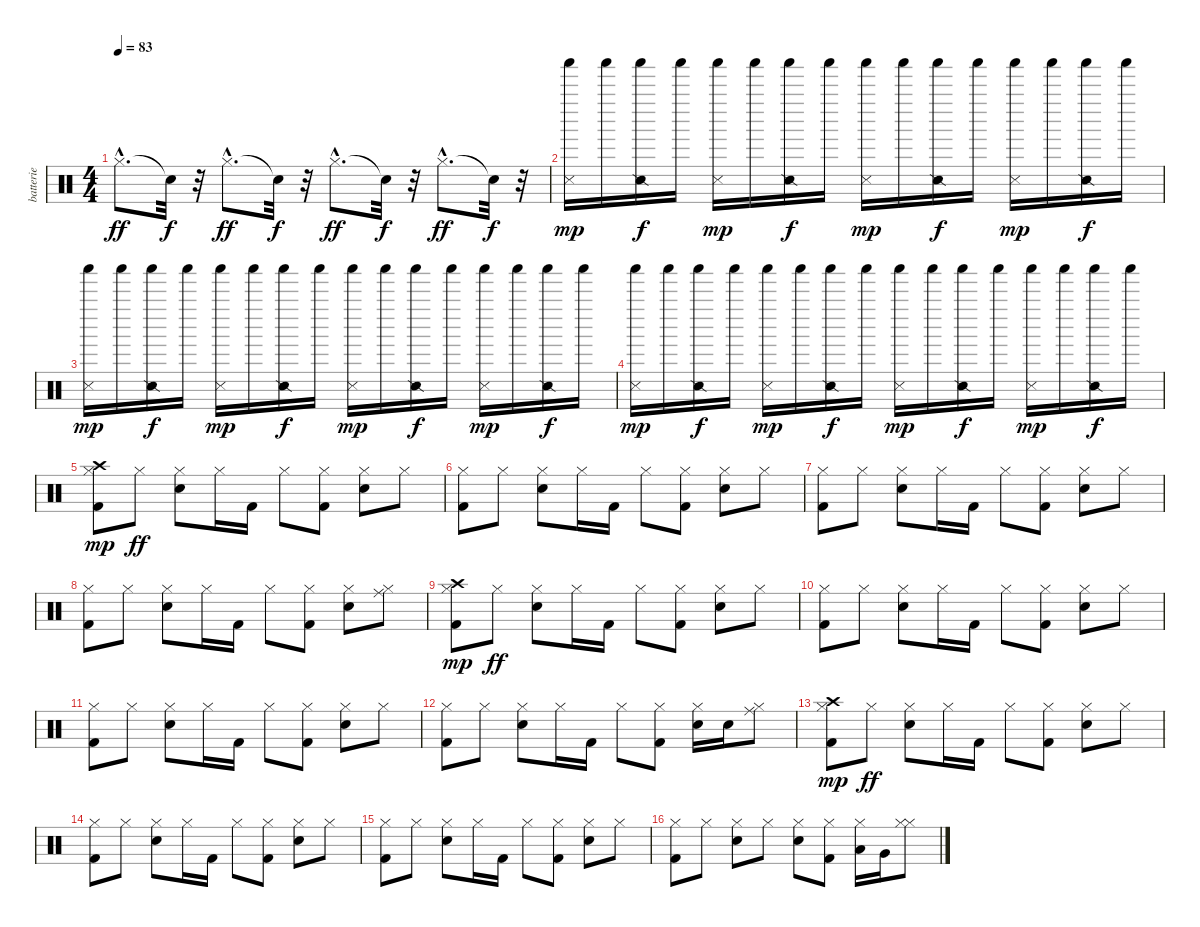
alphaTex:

\track ("batterie" "batterie") {instrument percussion}
\staff {score}
\articulation defaults
\ts (4 4)
\tempo 83
\clef neutral
\ks c "Hi-Hat (closed)"{hac}.8{d dy ff} "Snare (hit)"{t}.32{dy f}
r.32 "Hi-Hat (closed)"{hac}.8{d dy ff} "Snare (hit)"{t}.32{dy f} r.32 "Hi-Hat (closed)"{hac}.8{d dy ff} "Snare (hit)"{t}.32{dy f} r.32 "Hi-Hat (closed)"{hac}.8{d dy ff} "Snare (hit)"{t}.32{dy f} r.32 |
("Snare (side stick) 3" "Shaker (hit)").16{dy mp} "Shaker (hit)".16 ("Snare (side stick) 2" "Shaker (hit)").16{dy f} "Shaker (hit)".16 ("Snare (side stick) 3" "Shaker (hit)").16{dy mp} "Shaker (hit)".16 ("Snare (side stick) 2" "Shaker (hit)").16{dy f} "Shaker (hit)".16 ("Snare (side stick) 3" "Shaker (hit)").16{dy mp} "Shaker (hit)".16 ("Snare (side stick) 2" "Shaker (hit)").16{dy f} "Shaker (hit)".16 ("Snare (side stick) 3" "Shaker (hit)").16{dy mp} "Shaker (hit)".16 ("Snare (side stick) 2" "Shaker (hit)").16{dy f} "Shaker (hit)".16 |
("Snare (side stick) 3" "Shaker (hit)").16{dy mp} "Shaker (hit)".16 ("Snare (side stick) 2" "Shaker (hit)").16{dy f} "Shaker (hit)".16 ("Snare (side stick) 3" "Shaker (hit)").16{dy mp} "Shaker (hit)".16 ("Snare (side stick) 2" "Shaker (hit)").16{dy f} "Shaker (hit)".16 ("Snare (side stick) 3" "Shaker (hit)").16{dy mp} "Shaker (hit)".16 ("Snare (side stick) 2" "Shaker (hit)").16{dy f} "Shaker (hit)".16 ("Snare (side stick) 3" "Shaker (hit)").16{dy mp} "Shaker (hit)".16 ("Snare (side stick) 2" "Shaker (hit)").16{dy f} "Shaker (hit)".16 |
("Snare (side stick) 3" "Shaker (hit)").16{dy mp} "Shaker (hit)".16 ("Snare (side stick) 2" "Shaker (hit)").16{dy f} "Shaker (hit)".16 ("Snare (side stick) 3" "Shaker (hit)").16{dy mp} "Shaker (hit)".16 ("Snare (side stick) 2" "Shaker (hit)").16{dy f} "Shaker (hit)".16 ("Snare (side stick) 3" "Shaker (hit)").16{dy mp} "Shaker (hit)".16 ("Snare (side stick) 2" "Shaker (hit)").16{dy f} "Shaker (hit)".16 ("Snare (side stick) 3" "Shaker (hit)").16{dy mp} "Shaker (hit)".16 ("Snare (side stick) 2" "Shaker (hit)").16{dy f} "Shaker (hit)".16 |
("Kick (hit) 2" "Hi-Hat (closed)" "Crash high (hit)").8{dy mp} "Hi-Hat (closed)".8{dy ff} ("Snare (hit) 2" "Hi-Hat (closed)").8 "Hi-Hat (closed)".16 "Kick (hit) 2".16 "Hi-Hat (closed)".8 ("Kick (hit) 2" "Hi-Hat (closed)").8 ("Snare (hit) 2" "Hi-Hat (closed)").8 "Hi-Hat (closed)".8 |
("Kick (hit) 2" "Hi-Hat (closed)").8 "Hi-Hat (closed)".8 ("Snare (hit) 2" "Hi-Hat (closed)").8 "Hi-Hat (closed)".16 "Kick (hit) 2".16 "Hi-Hat (closed)".8 ("Kick (hit) 2" "Hi-Hat (closed)").8 ("Snare (hit) 2" "Hi-Hat (closed)").8 "Hi-Hat (closed)".8 |
("Kick (hit) 2" "Hi-Hat (closed)").8 "Hi-Hat (closed)".8 ("Snare (hit) 2" "Hi-Hat (closed)").8 "Hi-Hat (closed)".16 "Kick (hit) 2".16 "Hi-Hat (closed)".8 ("Kick (hit) 2" "Hi-Hat (closed)").8 ("Snare (hit) 2" "Hi-Hat (closed)").8 "Hi-Hat (closed)".8 |
("Kick (hit) 2" "Hi-Hat (closed)").8 "Hi-Hat (closed)".8 ("Snare (hit) 2" "Hi-Hat (closed)").8 "Hi-Hat (closed)".16 "Kick (hit) 2".16 "Hi-Hat (closed)".8 ("Kick (hit) 2" "Hi-Hat (closed)").8 ("Snare (hit) 2" "Hi-Hat (closed)").8 ("Hi-Hat (closed)" "Ride (middle)").8 |
("Kick (hit) 2" "Hi-Hat (closed)" "Crash high (hit)").8{dy mp} "Hi-Hat (closed)".8{dy ff} ("Snare (hit) 2" "Hi-Hat (closed)").8 "Hi-Hat (closed)".16 "Kick (hit) 2".16 "Hi-Hat (closed)".8 ("Kick (hit) 2" "Hi-Hat (closed)").8 ("Snare (hit) 2" "Hi-Hat (closed)").8 "Hi-Hat (closed)".8 |
("Kick (hit) 2" "Hi-Hat (closed)").8 "Hi-Hat (closed)".8 ("Snare (hit) 2" "Hi-Hat (closed)").8 "Hi-Hat (closed)".16 "Kick (hit) 2".16 "Hi-Hat (closed)".8 ("Kick (hit) 2" "Hi-Hat (closed)").8 ("Snare (hit) 2" "Hi-Hat (closed)").8 "Hi-Hat (closed)".8 |
("Kick (hit) 2" "Hi-Hat (closed)").8 "Hi-Hat (closed)".8 ("Snare (hit) 2" "Hi-Hat (closed)").8 "Hi-Hat (closed)".16 "Kick (hit) 2".16 "Hi-Hat (closed)".8 ("Kick (hit) 2" "Hi-Hat (closed)").8 ("Snare (hit) 2" "Hi-Hat (closed)").8 "Hi-Hat (closed)".8 |
("Kick (hit) 2" "Hi-Hat (closed)").8 "Hi-Hat (closed)".8 ("Snare (hit) 2" "Hi-Hat (closed)").8 "Hi-Hat (closed)".16 "Kick (hit) 2".16 "Hi-Hat (closed)".8 ("Kick (hit) 2" "Hi-Hat (closed)").8 ("Snare (hit) 2" "Hi-Hat (closed)").16 "Snare (hit) 2".16 ("Hi-Hat (closed)" "Ride (middle)").8 |
("Kick (hit) 2" "Hi-Hat (closed)" "Crash high (hit)").8{dy mp} "Hi-Hat (closed)".8{dy ff} ("Snare (hit) 2" "Hi-Hat (closed)").8 "Hi-Hat (closed)".16 "Kick (hit) 2".16 "Hi-Hat (closed)".8 ("Kick (hit) 2" "Hi-Hat (closed)").8 ("Snare (hit) 2" "Hi-Hat (closed)").8 "Hi-Hat (closed)".8 |
("Kick (hit) 2" "Hi-Hat (closed)").8 "Hi-Hat (closed)".8 ("Snare (hit) 2" "Hi-Hat (closed)").8 "Hi-Hat (closed)".16 "Kick (hit) 2".16 "Hi-Hat (closed)".8 ("Kick (hit) 2" "Hi-Hat (closed)").8 ("Snare (hit) 2" "Hi-Hat (closed)").8 "Hi-Hat (closed)".8 |
("Kick (hit) 2" "Hi-Hat (closed)").8 "Hi-Hat (closed)".8 ("Snare (hit) 2" "Hi-Hat (closed)").8 "Hi-Hat (closed)".16 "Kick (hit) 2".16 "Hi-Hat (closed)".8 ("Kick (hit) 2" "Hi-Hat (closed)").8 ("Snare (hit) 2" "Hi-Hat (closed)").8 "Hi-Hat (closed)".8 |
("Kick (hit) 2" "Hi-Hat (closed)").8 "Hi-Hat (closed)".8 ("Snare (hit) 2" "Hi-Hat (closed)").8 "Hi-Hat (closed)".8 ("Snare (hit) 2" "Hi-Hat (closed)").8 ("Kick (hit) 2" "Hi-Hat (closed)").8 ("Hi-Hat (closed)" "Low Tom (hit)").16 "Very Low Tom (hit)".16 ("Hi-Hat (closed)" "Hi-Hat (closed)").8
